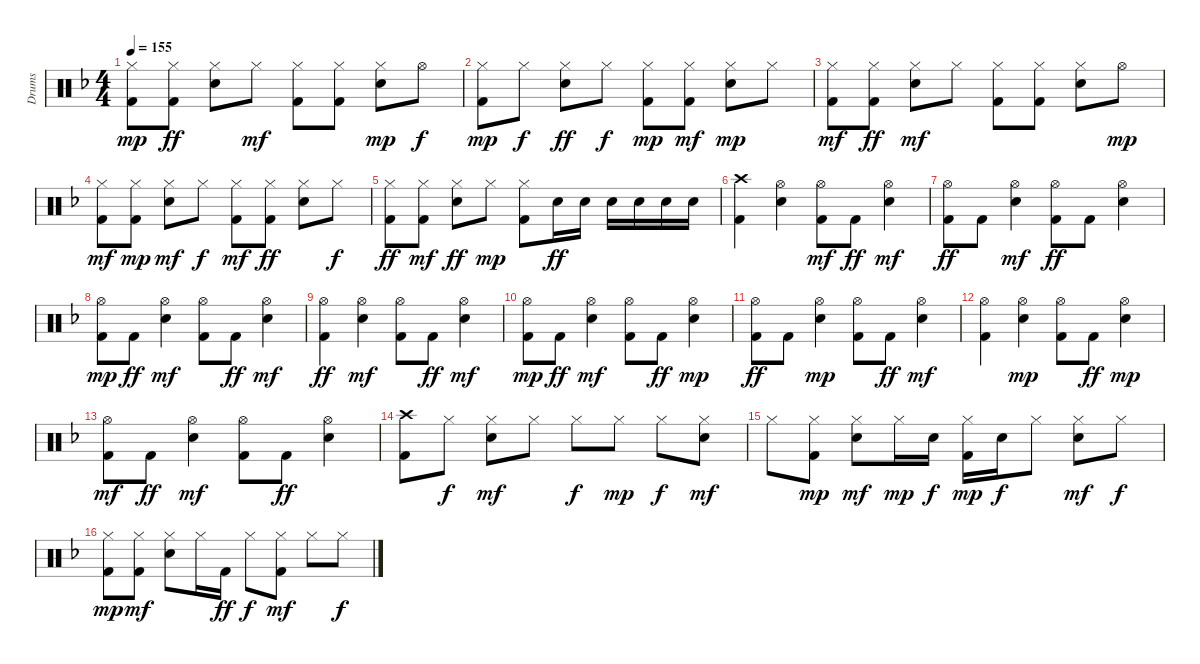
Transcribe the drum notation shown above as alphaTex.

\track ("Drums" "Drums") {instrument percussion}
\staff {score}
\articulation defaults
\ts (4 4)
\tempo 155
\clef neutral
\ks f
("Kick (hit) 2" "Hi-Hat (closed)").8{dy mp} ("Kick (hit) 2" "Hi-Hat (closed)").8{dy ff} ("Snare (hit) 2" "Hi-Hat (closed)").8 "Hi-Hat (closed)".8{dy mf} ("Kick (hit) 2" "Hi-Hat (closed)").8 ("Kick (hit) 2" "Hi-Hat (closed)").8 ("Snare (hit) 2" "Hi-Hat (closed)").8{dy mp} "Hi-Hat (open)".8{dy f} |
("Kick (hit) 2" "Hi-Hat (closed)").8{dy mp} "Hi-Hat (closed)".8{dy f} ("Snare (hit) 2" "Hi-Hat (closed)").8{dy ff} "Hi-Hat (closed)".8{dy f} ("Kick (hit) 2" "Hi-Hat (closed)").8{dy mp} ("Kick (hit) 2" "Hi-Hat (closed)").8{dy mf} ("Snare (hit) 2" "Hi-Hat (closed)").8{dy mp} "Hi-Hat (closed)".8 |
("Kick (hit) 2" "Hi-Hat (closed)").8{dy mf} ("Kick (hit) 2" "Hi-Hat (closed)").8{dy ff} ("Snare (hit) 2" "Hi-Hat (closed)").8{dy mf} "Hi-Hat (closed)".8 ("Kick (hit) 2" "Hi-Hat (closed)").8 ("Kick (hit) 2" "Hi-Hat (closed)").8 ("Snare (hit) 2" "Hi-Hat (closed)").8 "Hi-Hat (open)".8{dy mp} |
("Kick (hit) 2" "Hi-Hat (closed)").8{dy mf} ("Kick (hit) 2" "Hi-Hat (closed)").8{dy mp} ("Snare (hit) 2" "Hi-Hat (closed)").8{dy mf} "Hi-Hat (closed)".8{dy f} ("Kick (hit) 2" "Hi-Hat (closed)").8{dy mf} ("Kick (hit) 2" "Hi-Hat (closed)").8{dy ff} ("Snare (hit) 2" "Hi-Hat (closed)").8 "Hi-Hat (closed)".8{dy f} |
("Kick (hit) 2" "Hi-Hat (closed)").8{dy ff} ("Kick (hit) 2" "Hi-Hat (closed)").8{dy mf} ("Snare (hit) 2" "Hi-Hat (closed)").8{dy ff} "Hi-Hat (closed)".8{dy mp} ("Kick (hit) 2" "Hi-Hat (closed)").8 "Snare (hit) 2".16{dy ff} "Snare (hit) 2".16 "Snare (hit) 2".16 "Snare (hit) 2".16 "Snare (hit) 2".16 "Snare (hit) 2".16 |
("Kick (hit) 2" "Crash high (hit)").4 ("Snare (hit) 2" "Hi-Hat (open)").4 ("Kick (hit) 2" "Hi-Hat (open)").8{dy mf} "Kick (hit) 2".8{dy ff} ("Snare (hit) 2" "Hi-Hat (open)").4{dy mf} |
("Kick (hit) 2" "Hi-Hat (open)").8{dy ff} "Kick (hit) 2".8 ("Snare (hit) 2" "Hi-Hat (open)").4{dy mf} ("Kick (hit) 2" "Hi-Hat (open)").8{dy ff} "Kick (hit) 2".8 ("Snare (hit) 2" "Hi-Hat (open)").4 |
("Kick (hit) 2" "Hi-Hat (open)").8{dy mp} "Kick (hit) 2".8{dy ff} ("Snare (hit) 2" "Hi-Hat (open)").4{dy mf} ("Kick (hit) 2" "Hi-Hat (open)").8 "Kick (hit) 2".8{dy ff} ("Snare (hit) 2" "Hi-Hat (open)").4{dy mf} |
("Kick (hit) 2" "Hi-Hat (open)").4{dy ff} ("Snare (hit) 2" "Hi-Hat (open)").4{dy mf} ("Kick (hit) 2" "Hi-Hat (open)").8 "Kick (hit) 2".8{dy ff} ("Snare (hit) 2" "Hi-Hat (open)").4{dy mf} |
("Kick (hit) 2" "Hi-Hat (open)").8{dy mp} "Kick (hit) 2".8{dy ff} ("Snare (hit) 2" "Hi-Hat (open)").4{dy mf} ("Kick (hit) 2" "Hi-Hat (open)").8 "Kick (hit) 2".8{dy ff} ("Snare (hit) 2" "Hi-Hat (open)").4{dy mp} |
("Kick (hit) 2" "Hi-Hat (open)").8{dy ff} "Kick (hit) 2".8 ("Snare (hit) 2" "Hi-Hat (open)").4{dy mp} ("Kick (hit) 2" "Hi-Hat (open)").8 "Kick (hit) 2".8{dy ff} ("Snare (hit) 2" "Hi-Hat (open)").4{dy mf} |
("Kick (hit) 2" "Hi-Hat (open)").4 ("Snare (hit) 2" "Hi-Hat (open)").4{dy mp} ("Kick (hit) 2" "Hi-Hat (open)").8 "Kick (hit) 2".8{dy ff} ("Snare (hit) 2" "Hi-Hat (open)").4{dy mp} |
("Kick (hit) 2" "Hi-Hat (open)").8{dy mf} "Kick (hit) 2".8{dy ff} ("Snare (hit) 2" "Hi-Hat (open)").4{dy mf} ("Kick (hit) 2" "Hi-Hat (open)").8 "Kick (hit) 2".8{dy ff} ("Snare (hit) 2" "Hi-Hat (open)").4 |
("Kick (hit) 2" "Crash high (hit)").8 "Hi-Hat (closed)".8{dy f} ("Snare (hit) 2" "Hi-Hat (closed)").8{dy mf} "Hi-Hat (closed)".8 "Hi-Hat (closed)".8{dy f} "Hi-Hat (closed)".8{dy mp} "Hi-Hat (closed)".8{dy f} ("Snare (hit) 2" "Hi-Hat (closed)").8{dy mf} |
"Hi-Hat (closed)".8 ("Kick (hit) 2" "Hi-Hat (closed)").8{dy mp} ("Snare (hit) 2" "Hi-Hat (closed)").8{dy mf} "Hi-Hat (closed)".16{dy mp} "Snare (hit) 2".16{dy f} ("Kick (hit) 2" "Hi-Hat (closed)").16{dy mp} "Snare (hit) 2".16{dy f} "Hi-Hat (closed)".8 ("Snare (hit) 2" "Hi-Hat (closed)").8{dy mf} "Hi-Hat (closed)".8{dy f} |
("Kick (hit) 2" "Hi-Hat (closed)").8{dy mp} ("Kick (hit) 2" "Hi-Hat (closed)").8{dy mf} ("Snare (hit) 2" "Hi-Hat (closed)").8 "Hi-Hat (closed)".16 "Kick (hit) 2".16{dy ff} "Hi-Hat (closed)".8{dy f} ("Kick (hit) 2" "Hi-Hat (closed)").8{dy mf} "Hi-Hat (closed)".8 "Hi-Hat (closed)".8{dy f}
